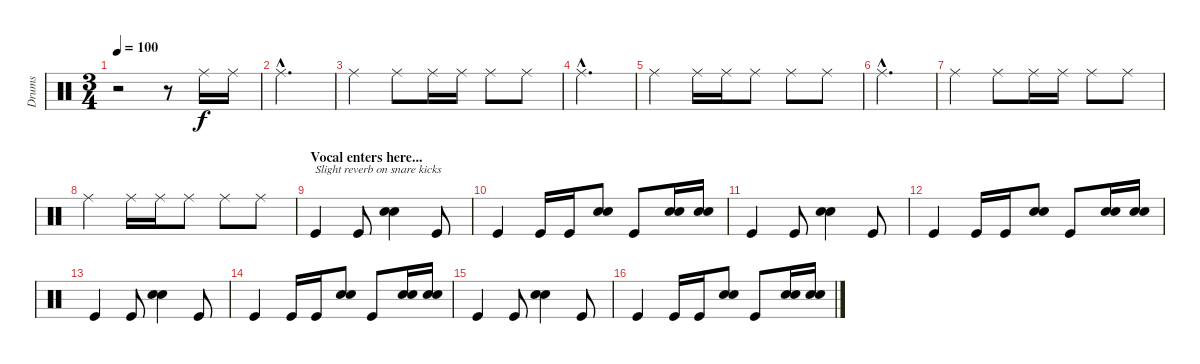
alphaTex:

\track ("Drums" "Drums") {instrument percussion}
\staff {score}
\articulation defaults
\ts (3 4)
\tempo 100
\clef neutral
\ks c
r.2{dy f} r.8 "Ride (middle)".16 "Ride (middle)".16 |
"Ride (middle)"{hac}.2{d} |
"Ride (middle)".4 "Ride (middle)".8 "Ride (middle)".16 "Ride (middle)".16 "Ride (middle)".8 "Ride (middle)".8 |
"Ride (middle)"{hac}.2{d} |
"Ride (middle)".4 "Ride (middle)".16 "Ride (middle)".16 "Ride (middle)".8 "Ride (middle)".8 "Ride (middle)".8 |
"Ride (middle)"{hac}.2{d} |
"Ride (middle)".4 "Ride (middle)".8 "Ride (middle)".16 "Ride (middle)".16 "Ride (middle)".8 "Ride (middle)".8 |
"Ride (middle)".4 "Ride (middle)".16 "Ride (middle)".16 "Ride (middle)".8 "Ride (middle)".8 "Ride (middle)".8 |
\section ("" "Vocal enters here...")
"Kick (hit)".4{txt "Slight reverb on snare kicks"} "Kick (hit)".8 ("Snare (hit) 2" "Electric Snare (hit)").4 "Kick (hit)".8 |
"Kick (hit)".4 "Kick (hit)".16 "Kick (hit)".16 ("Snare (hit) 2" "Electric Snare (hit)").8 "Kick (hit)".8 ("Snare (hit) 2" "Electric Snare (hit)").16 ("Snare (hit) 2" "Electric Snare (hit)").16 |
"Kick (hit)".4 "Kick (hit)".8 ("Snare (hit) 2" "Electric Snare (hit)").4 "Kick (hit)".8 |
"Kick (hit)".4 "Kick (hit)".16 "Kick (hit)".16 ("Snare (hit) 2" "Electric Snare (hit)").8 "Kick (hit)".8 ("Snare (hit) 2" "Electric Snare (hit)").16 ("Snare (hit) 2" "Electric Snare (hit)").16 |
"Kick (hit)".4 "Kick (hit)".8 ("Snare (hit) 2" "Electric Snare (hit)").4 "Kick (hit)".8 |
"Kick (hit)".4 "Kick (hit)".16 "Kick (hit)".16 ("Snare (hit) 2" "Electric Snare (hit)").8 "Kick (hit)".8 ("Snare (hit) 2" "Electric Snare (hit)").16 ("Snare (hit) 2" "Electric Snare (hit)").16 |
"Kick (hit)".4 "Kick (hit)".8 ("Snare (hit) 2" "Electric Snare (hit)").4 "Kick (hit)".8 |
"Kick (hit)".4 "Kick (hit)".16 "Kick (hit)".16 ("Snare (hit) 2" "Electric Snare (hit)").8 "Kick (hit)".8 ("Snare (hit) 2" "Electric Snare (hit)").16 ("Snare (hit) 2" "Electric Snare (hit)").16
